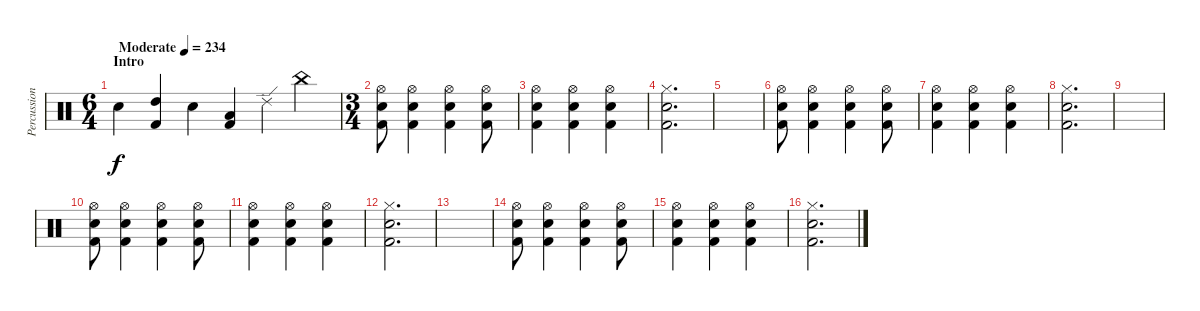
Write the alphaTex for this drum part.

\track ("Percussion" "Percussion") {instrument percussion}
\staff {score}
\articulation defaults
\ts (6 4)
\section ("" "Intro")
\tempo (234 "Moderate")
\clef neutral
\ks c "Snare (hit) 2".4{dy f}
("High Tom (hit)" "Kick (hit) 2").4 "Snare (hit) 2".4 ("Low Tom (hit)" "Kick (hit) 2").4 "Ride (edge) 2".4 "China (hit)".4 |
\ts (3 4)
("Hi-Hat (open)" "Snare (hit) 2" "Kick (hit) 2").8 ("Hi-Hat (open)" "Snare (hit) 2" "Kick (hit) 2").4 ("Hi-Hat (open)" "Snare (hit) 2" "Kick (hit) 2").4 ("Hi-Hat (open)" "Snare (hit) 2" "Kick (hit) 2").8 |
("Hi-Hat (open)" "Snare (hit) 2" "Kick (hit) 2").4 ("Hi-Hat (open)" "Snare (hit) 2" "Kick (hit) 2").4 ("Hi-Hat (open)" "Snare (hit) 2" "Kick (hit) 2").4 |
("Hi-Hat (closed)" "Snare (hit) 2" "Kick (hit) 2").2{d} |
|
("Hi-Hat (open)" "Snare (hit) 2" "Kick (hit) 2").8 ("Hi-Hat (open)" "Snare (hit) 2" "Kick (hit) 2").4 ("Hi-Hat (open)" "Snare (hit) 2" "Kick (hit) 2").4 ("Hi-Hat (open)" "Snare (hit) 2" "Kick (hit) 2").8 |
("Hi-Hat (open)" "Snare (hit) 2" "Kick (hit) 2").4 ("Hi-Hat (open)" "Snare (hit) 2" "Kick (hit) 2").4 ("Hi-Hat (open)" "Snare (hit) 2" "Kick (hit) 2").4 |
("Hi-Hat (closed)" "Snare (hit) 2" "Kick (hit) 2").2{d} |
|
("Hi-Hat (open)" "Snare (hit) 2" "Kick (hit) 2").8 ("Hi-Hat (open)" "Snare (hit) 2" "Kick (hit) 2").4 ("Hi-Hat (open)" "Snare (hit) 2" "Kick (hit) 2").4 ("Hi-Hat (open)" "Snare (hit) 2" "Kick (hit) 2").8 |
("Hi-Hat (open)" "Snare (hit) 2" "Kick (hit) 2").4 ("Hi-Hat (open)" "Snare (hit) 2" "Kick (hit) 2").4 ("Hi-Hat (open)" "Snare (hit) 2" "Kick (hit) 2").4 |
("Hi-Hat (closed)" "Snare (hit) 2" "Kick (hit) 2").2{d} |
|
("Hi-Hat (open)" "Snare (hit) 2" "Kick (hit) 2").8 ("Hi-Hat (open)" "Snare (hit) 2" "Kick (hit) 2").4 ("Hi-Hat (open)" "Snare (hit) 2" "Kick (hit) 2").4 ("Hi-Hat (open)" "Snare (hit) 2" "Kick (hit) 2").8 |
("Hi-Hat (open)" "Snare (hit) 2" "Kick (hit) 2").4 ("Hi-Hat (open)" "Snare (hit) 2" "Kick (hit) 2").4 ("Hi-Hat (open)" "Snare (hit) 2" "Kick (hit) 2").4 |
("Hi-Hat (closed)" "Snare (hit) 2" "Kick (hit) 2").2{d}
